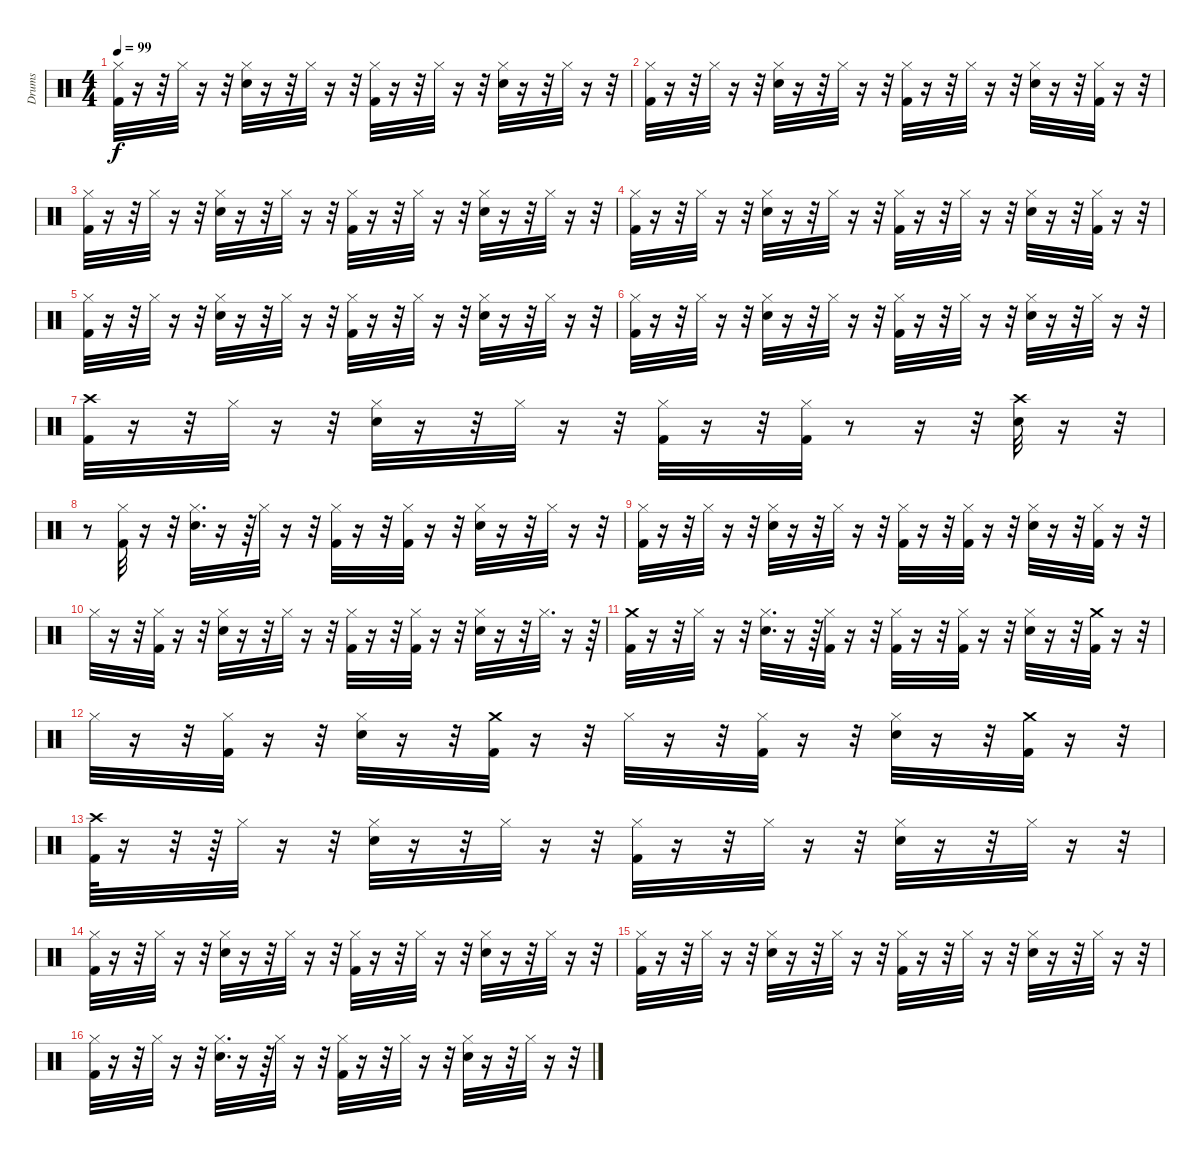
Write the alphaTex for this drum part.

\track ("Drums" "Drums") {instrument percussion}
\staff {score}
\articulation defaults
\ts (4 4)
\tempo 99
\clef neutral
\ks c
("Hi-Hat (closed)" "Kick (hit) 2").32{dy f} r.16 r.32 "Hi-Hat (closed)".32 r.16 r.32 ("Hi-Hat (closed)" "Snare (hit) 2").32 r.16 r.32 "Hi-Hat (closed)".32 r.16 r.32 ("Hi-Hat (closed)" "Kick (hit) 2").32 r.16 r.32 "Hi-Hat (closed)".32 r.16 r.32 ("Hi-Hat (closed)" "Snare (hit) 2").32 r.16 r.32 "Hi-Hat (closed)".32 r.16 r.32 |
("Hi-Hat (closed)" "Kick (hit) 2").32 r.16 r.32 "Hi-Hat (closed)".32 r.16 r.32 ("Hi-Hat (closed)" "Snare (hit) 2").32 r.16 r.32 "Hi-Hat (closed)".32 r.16 r.32 ("Hi-Hat (closed)" "Kick (hit) 2").32 r.16 r.32 "Hi-Hat (closed)".32 r.16 r.32 ("Hi-Hat (closed)" "Snare (hit) 2").32 r.16 r.32 ("Hi-Hat (closed)" "Kick (hit) 2").32 r.16 r.32 |
("Hi-Hat (closed)" "Kick (hit) 2").32 r.16 r.32 "Hi-Hat (closed)".32 r.16 r.32 ("Hi-Hat (closed)" "Snare (hit) 2").32 r.16 r.32 "Hi-Hat (closed)".32 r.16 r.32 ("Hi-Hat (closed)" "Kick (hit) 2").32 r.16 r.32 "Hi-Hat (closed)".32 r.16 r.32 ("Hi-Hat (closed)" "Snare (hit) 2").32 r.16 r.32 "Hi-Hat (closed)".32 r.16 r.32 |
("Hi-Hat (closed)" "Kick (hit) 2").32 r.16 r.32 "Hi-Hat (closed)".32 r.16 r.32 ("Hi-Hat (closed)" "Snare (hit) 2").32 r.16 r.32 "Hi-Hat (closed)".32 r.16 r.32 ("Hi-Hat (closed)" "Kick (hit) 2").32 r.16 r.32 "Hi-Hat (closed)".32 r.16 r.32 ("Hi-Hat (closed)" "Snare (hit) 2").32 r.16 r.32 ("Hi-Hat (closed)" "Kick (hit) 2").32 r.16 r.32 |
("Hi-Hat (closed)" "Kick (hit) 2").32 r.16 r.32 "Hi-Hat (closed)".32 r.16 r.32 ("Hi-Hat (closed)" "Snare (hit) 2").32 r.16 r.32 "Hi-Hat (closed)".32 r.16 r.32 ("Hi-Hat (closed)" "Kick (hit) 2").32 r.16 r.32 "Hi-Hat (closed)".32 r.16 r.32 ("Hi-Hat (closed)" "Snare (hit) 2").32 r.16 r.32 "Hi-Hat (closed)".32 r.16 r.32 |
("Hi-Hat (closed)" "Kick (hit) 2").32 r.16 r.32 "Hi-Hat (closed)".32 r.16 r.32 ("Hi-Hat (closed)" "Snare (hit) 2").32 r.16 r.32 "Hi-Hat (closed)".32 r.16 r.32 ("Hi-Hat (closed)" "Kick (hit) 2").32 r.16 r.32 "Hi-Hat (closed)".32 r.16 r.32 ("Hi-Hat (closed)" "Snare (hit) 2").32 r.16 r.32 "Hi-Hat (closed)".32 r.16 r.32 |
("Crash high (hit)" "Kick (hit) 2").32 r.16 r.32 "Hi-Hat (closed)".32 r.16 r.32 ("Hi-Hat (closed)" "Snare (hit) 2").32 r.16 r.32 "Hi-Hat (closed)".32 r.16 r.32 ("Hi-Hat (closed)" "Kick (hit) 2").32 r.16 r.32 ("Hi-Hat (closed)" "Kick (hit) 2").32 r.8 r.16 r.32 ("Crash high (hit)" "Snare (hit) 2").32 r.16 r.32 |
r.8 ("Hi-Hat (closed)" "Kick (hit) 2").32 r.16 r.32 ("Hi-Hat (closed)" "Snare (hit) 2").32{d} r.16 r.64 "Hi-Hat (closed)".32 r.16 r.32 ("Hi-Hat (closed)" "Kick (hit) 2").32 r.16 r.32 ("Hi-Hat (closed)" "Kick (hit) 2").32 r.16 r.32 ("Hi-Hat (closed)" "Snare (hit) 2").32 r.16 r.32 "Hi-Hat (closed)".32 r.16 r.32 |
("Hi-Hat (closed)" "Kick (hit) 2").32 r.16 r.32 "Hi-Hat (closed)".32 r.16 r.32 ("Hi-Hat (closed)" "Snare (hit) 2").32 r.16 r.32 "Hi-Hat (closed)".32 r.16 r.32 ("Hi-Hat (closed)" "Kick (hit) 2").32 r.16 r.32 ("Hi-Hat (closed)" "Kick (hit) 2").32 r.16 r.32 ("Hi-Hat (closed)" "Snare (hit) 2").32 r.16 r.32 ("Hi-Hat (closed)" "Kick (hit) 2").32 r.16 r.32 |
"Hi-Hat (closed)".32 r.16 r.32 ("Hi-Hat (closed)" "Kick (hit) 2").32 r.16 r.32 ("Hi-Hat (closed)" "Snare (hit) 2").32 r.16 r.32 "Hi-Hat (closed)".32 r.16 r.32 ("Hi-Hat (closed)" "Kick (hit) 2").32 r.16 r.32 ("Hi-Hat (closed)" "Kick (hit) 2").32 r.16 r.32 ("Hi-Hat (closed)" "Snare (hit) 2").32 r.16 r.32 "Hi-Hat (closed)".32{d} r.16 r.64 |
("Crash medium (hit)" "Kick (hit) 2").32 r.16 r.32 "Hi-Hat (closed)".32 r.16 r.32 ("Hi-Hat (closed)" "Snare (hit) 2").32{d} r.16 r.64 ("Hi-Hat (closed)" "Kick (hit) 2").32 r.16 r.32 ("Hi-Hat (closed)" "Kick (hit) 2").32 r.16 r.32 ("Hi-Hat (closed)" "Kick (hit) 2").32 r.16 r.32 ("Hi-Hat (closed)" "Snare (hit) 2").32 r.16 r.32 ("Crash medium (hit)" "Kick (hit) 2").32 r.16 r.32 |
"Hi-Hat (closed)".32 r.16 r.32 ("Hi-Hat (closed)" "Kick (hit) 2").32 r.16 r.32 ("Hi-Hat (closed)" "Snare (hit) 2").32 r.16 r.32 ("Crash medium (hit)" "Kick (hit) 2").32 r.16 r.32 "Hi-Hat (closed)".32 r.16 r.32 ("Hi-Hat (closed)" "Kick (hit) 2").32 r.16 r.32 ("Hi-Hat (closed)" "Snare (hit) 2").32 r.16 r.32 ("Crash medium (hit)" "Kick (hit) 2").32 r.16 r.32 |
("Crash high (hit)" "Kick (hit) 2").64 r.16 r.32 r.64 "Hi-Hat (closed)".32 r.16 r.32 ("Hi-Hat (closed)" "Snare (hit) 2").32 r.16 r.32 "Hi-Hat (closed)".32 r.16 r.32 ("Hi-Hat (closed)" "Kick (hit) 2").32 r.16 r.32 "Hi-Hat (closed)".32 r.16 r.32 ("Hi-Hat (closed)" "Snare (hit) 2").32 r.16 r.32 "Hi-Hat (closed)".32 r.16 r.32 |
("Hi-Hat (closed)" "Kick (hit) 2").32 r.16 r.32 "Hi-Hat (closed)".32 r.16 r.32 ("Hi-Hat (closed)" "Snare (hit) 2").32 r.16 r.32 "Hi-Hat (closed)".32 r.16 r.32 ("Hi-Hat (closed)" "Kick (hit) 2").32 r.16 r.32 "Hi-Hat (closed)".32 r.16 r.32 ("Hi-Hat (closed)" "Snare (hit) 2").32 r.16 r.32 "Hi-Hat (closed)".32 r.16 r.32 |
("Hi-Hat (closed)" "Kick (hit) 2").32 r.16 r.32 "Hi-Hat (closed)".32 r.16 r.32 ("Hi-Hat (closed)" "Snare (hit) 2").32 r.16 r.32 "Hi-Hat (closed)".32 r.16 r.32 ("Hi-Hat (closed)" "Kick (hit) 2").32 r.16 r.32 "Hi-Hat (closed)".32 r.16 r.32 ("Hi-Hat (closed)" "Snare (hit) 2").32 r.16 r.32 "Hi-Hat (closed)".32 r.16 r.32 |
("Hi-Hat (closed)" "Kick (hit) 2").32 r.16 r.32 "Hi-Hat (closed)".32 r.16 r.32 ("Hi-Hat (closed)" "Snare (hit) 2").32{d} r.16 r.64 "Hi-Hat (closed)".32 r.16 r.32 ("Hi-Hat (closed)" "Kick (hit) 2").32 r.16 r.32 "Hi-Hat (closed)".32 r.16 r.32 ("Hi-Hat (closed)" "Snare (hit) 2").32 r.16 r.32 "Hi-Hat (closed)".32 r.16 r.32
